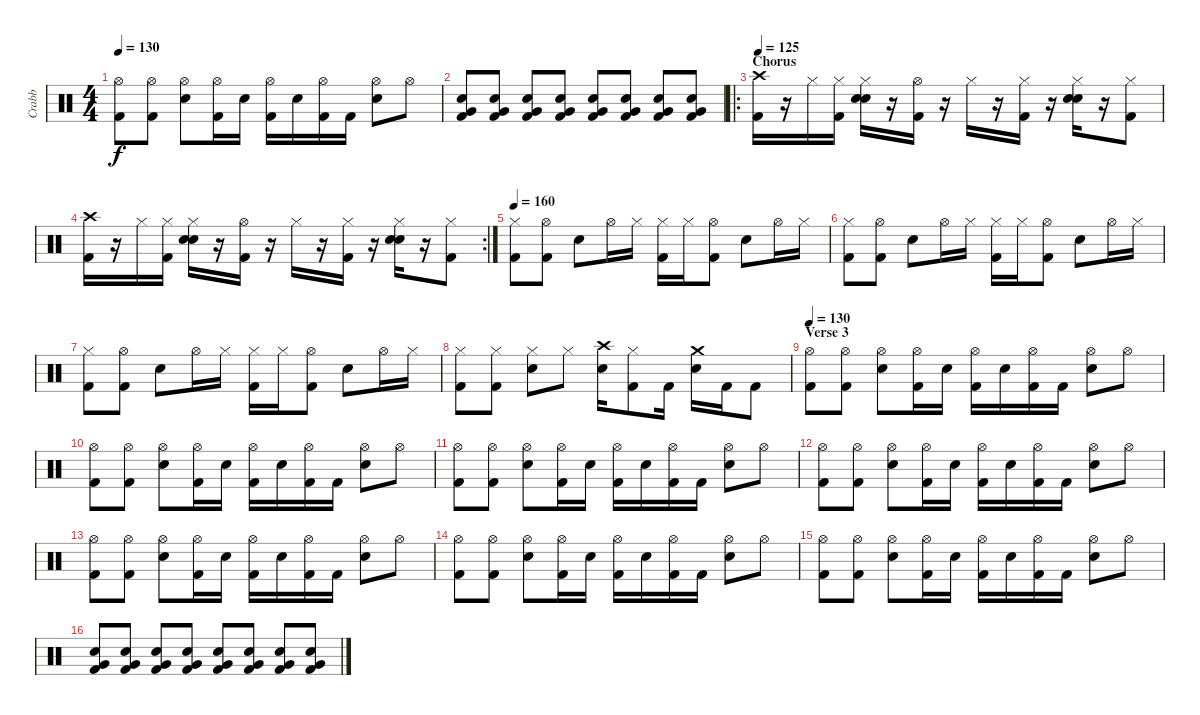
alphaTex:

\track ("Crabb" "Crabb") {instrument percussion}
\staff {score}
\articulation defaults
\ts (4 4)
\tempo 130
\clef neutral
\ks c
("Hi-Hat (open)" "Kick (hit) 2").8{dy f} ("Hi-Hat (open)" "Kick (hit) 2").8 ("Hi-Hat (open)" "Electric Snare (hit)").8 ("Hi-Hat (open)" "Kick (hit) 2").16 "Electric Snare (hit)".16 ("Hi-Hat (open)" "Kick (hit) 2").16 "Electric Snare (hit)".16 ("Hi-Hat (open)" "Kick (hit) 2").16 "Kick (hit) 2".16 ("Hi-Hat (open)" "Electric Snare (hit)").8 "Hi-Hat (open)".8 |
("Very Low Tom (hit)" "Kick (hit) 2" "Electric Snare (hit)").8 ("Very Low Tom (hit)" "Kick (hit) 2" "Electric Snare (hit)").8 ("Very Low Tom (hit)" "Kick (hit) 2" "Electric Snare (hit)").8 ("Very Low Tom (hit)" "Kick (hit) 2" "Electric Snare (hit)").8 ("Very Low Tom (hit)" "Kick (hit) 2" "Electric Snare (hit)").8 ("Very Low Tom (hit)" "Kick (hit) 2" "Electric Snare (hit)").8 ("Very Low Tom (hit)" "Kick (hit) 2" "Electric Snare (hit)").8 ("Very Low Tom (hit)" "Kick (hit) 2" "Electric Snare (hit)").8 |
\ro
\section ("" "Chorus")
\tempo 125
("Kick (hit) 2" "Crash high (hit)").16 r.16 "Hi-Hat (closed)".16 ("Hi-Hat (closed)" "Kick (hit) 2").16 ("Hi-Hat (closed)" "Snare (hit) 2" "Electric Snare (hit)").16 r.16 ("Hi-Hat (open)" "Kick (hit) 2").16 r.16 "Hi-Hat (closed)".16 r.16 ("Hi-Hat (closed)" "Kick (hit) 2").16 r.16 ("Hi-Hat (closed)" "Snare (hit) 2" "Electric Snare (hit)").16 r.16 ("Hi-Hat (closed)" "Kick (hit) 2").8 |
\rc 2
("Kick (hit) 2" "Crash high (hit)").16 r.16 "Hi-Hat (closed)".16 ("Hi-Hat (closed)" "Kick (hit) 2").16 ("Hi-Hat (closed)" "Snare (hit) 2" "Electric Snare (hit)").16 r.16 ("Hi-Hat (open)" "Kick (hit) 2").16 r.16 "Hi-Hat (closed)".16 r.16 ("Hi-Hat (closed)" "Kick (hit) 2").16 r.16 ("Hi-Hat (closed)" "Snare (hit) 2" "Electric Snare (hit)").16 r.16 ("Hi-Hat (closed)" "Kick (hit) 2").8 |
\tempo 160
("Hi-Hat (closed)" "Kick (hit) 2").8 ("Hi-Hat (open)" "Kick (hit) 2").8 "Electric Snare (hit)".8 "Hi-Hat (open)".16 "Hi-Hat (closed)".16 ("Hi-Hat (closed)" "Kick (hit) 2").16 "Hi-Hat (closed)".16 ("Hi-Hat (open)" "Kick (hit) 2").8 "Electric Snare (hit)".8 "Hi-Hat (open)".16 "Hi-Hat (closed)".16 |
("Hi-Hat (closed)" "Kick (hit) 2").8 ("Hi-Hat (open)" "Kick (hit) 2").8 "Electric Snare (hit)".8 "Hi-Hat (open)".16 "Hi-Hat (closed)".16 ("Hi-Hat (closed)" "Kick (hit) 2").16 "Hi-Hat (closed)".16 ("Hi-Hat (open)" "Kick (hit) 2").8 "Electric Snare (hit)".8 "Hi-Hat (open)".16 "Hi-Hat (closed)".16 |
("Hi-Hat (closed)" "Kick (hit) 2").8 ("Hi-Hat (open)" "Kick (hit) 2").8 "Electric Snare (hit)".8 "Hi-Hat (open)".16 "Hi-Hat (closed)".16 ("Hi-Hat (closed)" "Kick (hit) 2").16 "Hi-Hat (closed)".16 ("Hi-Hat (open)" "Kick (hit) 2").8 "Electric Snare (hit)".8 "Hi-Hat (open)".16 "Hi-Hat (closed)".16 |
("Hi-Hat (closed)" "Kick (hit) 2").8 ("Hi-Hat (closed)" "Kick (hit) 2").8 ("Hi-Hat (closed)" "Electric Snare (hit)").8 "Hi-Hat (closed)".8 ("Crash high (hit)" "Electric Snare (hit)").16 ("Hi-Hat (closed)" "Kick (hit) 2").8 "Kick (hit) 2".16 ("Crash medium (hit)" "Electric Snare (hit)").16 "Kick (hit) 2".16 "Kick (hit) 2".8 |
\section ("" "Verse 3")
\tempo 130
("Hi-Hat (open)" "Kick (hit) 2").8 ("Hi-Hat (open)" "Kick (hit) 2").8 ("Hi-Hat (open)" "Electric Snare (hit)").8 ("Hi-Hat (open)" "Kick (hit) 2").16 "Electric Snare (hit)".16 ("Hi-Hat (open)" "Kick (hit) 2").16 "Electric Snare (hit)".16 ("Hi-Hat (open)" "Kick (hit) 2").16 "Kick (hit) 2".16 ("Hi-Hat (open)" "Electric Snare (hit)").8 "Hi-Hat (open)".8 |
("Hi-Hat (open)" "Kick (hit) 2").8 ("Hi-Hat (open)" "Kick (hit) 2").8 ("Hi-Hat (open)" "Electric Snare (hit)").8 ("Hi-Hat (open)" "Kick (hit) 2").16 "Electric Snare (hit)".16 ("Hi-Hat (open)" "Kick (hit) 2").16 "Electric Snare (hit)".16 ("Hi-Hat (open)" "Kick (hit) 2").16 "Kick (hit) 2".16 ("Hi-Hat (open)" "Electric Snare (hit)").8 "Hi-Hat (open)".8 |
("Hi-Hat (open)" "Kick (hit) 2").8 ("Hi-Hat (open)" "Kick (hit) 2").8 ("Hi-Hat (open)" "Electric Snare (hit)").8 ("Hi-Hat (open)" "Kick (hit) 2").16 "Electric Snare (hit)".16 ("Hi-Hat (open)" "Kick (hit) 2").16 "Electric Snare (hit)".16 ("Hi-Hat (open)" "Kick (hit) 2").16 "Kick (hit) 2".16 ("Hi-Hat (open)" "Electric Snare (hit)").8 "Hi-Hat (open)".8 |
("Hi-Hat (open)" "Kick (hit) 2").8 ("Hi-Hat (open)" "Kick (hit) 2").8 ("Hi-Hat (open)" "Electric Snare (hit)").8 ("Hi-Hat (open)" "Kick (hit) 2").16 "Electric Snare (hit)".16 ("Hi-Hat (open)" "Kick (hit) 2").16 "Electric Snare (hit)".16 ("Hi-Hat (open)" "Kick (hit) 2").16 "Kick (hit) 2".16 ("Hi-Hat (open)" "Electric Snare (hit)").8 "Hi-Hat (open)".8 |
("Hi-Hat (open)" "Kick (hit) 2").8 ("Hi-Hat (open)" "Kick (hit) 2").8 ("Hi-Hat (open)" "Electric Snare (hit)").8 ("Hi-Hat (open)" "Kick (hit) 2").16 "Electric Snare (hit)".16 ("Hi-Hat (open)" "Kick (hit) 2").16 "Electric Snare (hit)".16 ("Hi-Hat (open)" "Kick (hit) 2").16 "Kick (hit) 2".16 ("Hi-Hat (open)" "Electric Snare (hit)").8 "Hi-Hat (open)".8 |
("Hi-Hat (open)" "Kick (hit) 2").8 ("Hi-Hat (open)" "Kick (hit) 2").8 ("Hi-Hat (open)" "Electric Snare (hit)").8 ("Hi-Hat (open)" "Kick (hit) 2").16 "Electric Snare (hit)".16 ("Hi-Hat (open)" "Kick (hit) 2").16 "Electric Snare (hit)".16 ("Hi-Hat (open)" "Kick (hit) 2").16 "Kick (hit) 2".16 ("Hi-Hat (open)" "Electric Snare (hit)").8 "Hi-Hat (open)".8 |
("Hi-Hat (open)" "Kick (hit) 2").8 ("Hi-Hat (open)" "Kick (hit) 2").8 ("Hi-Hat (open)" "Electric Snare (hit)").8 ("Hi-Hat (open)" "Kick (hit) 2").16 "Electric Snare (hit)".16 ("Hi-Hat (open)" "Kick (hit) 2").16 "Electric Snare (hit)".16 ("Hi-Hat (open)" "Kick (hit) 2").16 "Kick (hit) 2".16 ("Hi-Hat (open)" "Electric Snare (hit)").8 "Hi-Hat (open)".8 |
("Very Low Tom (hit)" "Kick (hit) 2" "Electric Snare (hit)").8 ("Very Low Tom (hit)" "Kick (hit) 2" "Electric Snare (hit)").8 ("Very Low Tom (hit)" "Kick (hit) 2" "Electric Snare (hit)").8 ("Very Low Tom (hit)" "Kick (hit) 2" "Electric Snare (hit)").8 ("Very Low Tom (hit)" "Kick (hit) 2" "Electric Snare (hit)").8 ("Very Low Tom (hit)" "Kick (hit) 2" "Electric Snare (hit)").8 ("Very Low Tom (hit)" "Kick (hit) 2" "Electric Snare (hit)").8 ("Very Low Tom (hit)" "Kick (hit) 2" "Electric Snare (hit)").8
